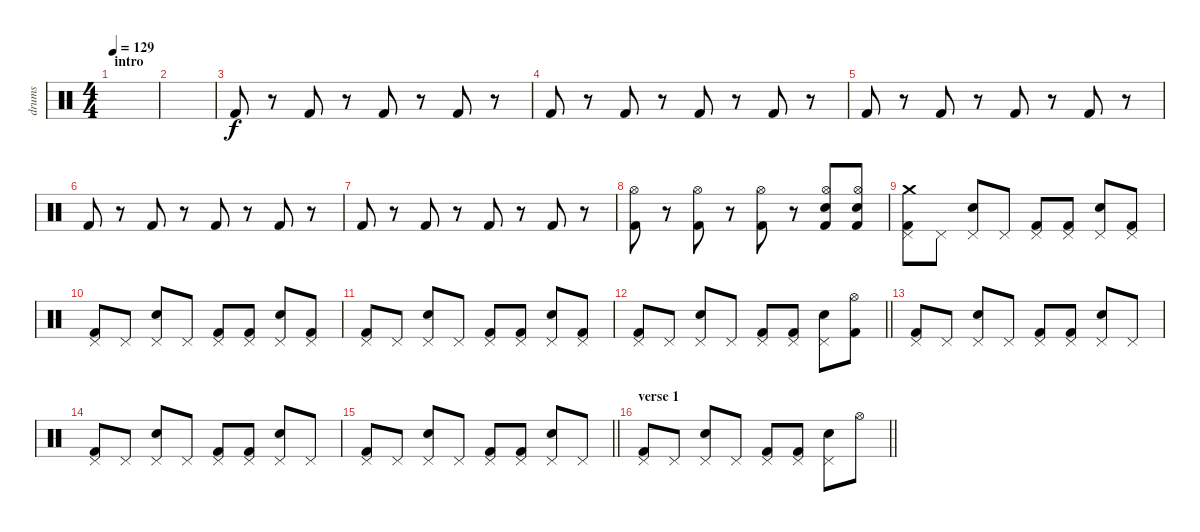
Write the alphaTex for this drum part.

\track ("drums" "drums") {instrument percussion}
\staff {score}
\articulation defaults
\ts (4 4)
\section ("" "intro")
\tempo 129
\clef neutral
\ks c
|
|
"Kick (hit) 2".8 r.8 "Kick (hit) 2".8 r.8 "Kick (hit) 2".8 r.8 "Kick (hit) 2".8 r.8 |
"Kick (hit) 2".8 r.8 "Kick (hit) 2".8 r.8 "Kick (hit) 2".8 r.8 "Kick (hit) 2".8 r.8 |
"Kick (hit) 2".8 r.8 "Kick (hit) 2".8 r.8 "Kick (hit) 2".8 r.8 "Kick (hit) 2".8 r.8 |
"Kick (hit) 2".8 r.8 "Kick (hit) 2".8 r.8 "Kick (hit) 2".8 r.8 "Kick (hit) 2".8 r.8 |
"Kick (hit) 2".8 r.8 "Kick (hit) 2".8 r.8 "Kick (hit) 2".8 r.8 "Kick (hit) 2".8 r.8 |
("Kick (hit) 2" "Hi-Hat (open)").8 r.8 ("Kick (hit) 2" "Hi-Hat (open)").8 r.8 ("Kick (hit) 2" "Hi-Hat (open)").8 r.8 ("Kick (hit) 2" "Electric Snare (hit)" "Hi-Hat (open)").8 ("Kick (hit) 2" "Electric Snare (hit)" "Hi-Hat (open)").8 |
("Kick (hit) 2" "Pedal Hi-Hat (hit)" "Crash medium (hit)").8 "Pedal Hi-Hat (hit)".8 ("Electric Snare (hit)" "Pedal Hi-Hat (hit)").8 "Pedal Hi-Hat (hit)".8 ("Kick (hit) 2" "Pedal Hi-Hat (hit)").8 ("Kick (hit) 2" "Pedal Hi-Hat (hit)").8 ("Electric Snare (hit)" "Pedal Hi-Hat (hit)").8 ("Kick (hit) 2" "Pedal Hi-Hat (hit)").8 |
("Kick (hit) 2" "Pedal Hi-Hat (hit)").8 "Pedal Hi-Hat (hit)".8 ("Electric Snare (hit)" "Pedal Hi-Hat (hit)").8 "Pedal Hi-Hat (hit)".8 ("Kick (hit) 2" "Pedal Hi-Hat (hit)").8 ("Kick (hit) 2" "Pedal Hi-Hat (hit)").8 ("Electric Snare (hit)" "Pedal Hi-Hat (hit)").8 ("Kick (hit) 2" "Pedal Hi-Hat (hit)").8 |
("Kick (hit) 2" "Pedal Hi-Hat (hit)").8 "Pedal Hi-Hat (hit)".8 ("Electric Snare (hit)" "Pedal Hi-Hat (hit)").8 "Pedal Hi-Hat (hit)".8 ("Kick (hit) 2" "Pedal Hi-Hat (hit)").8 ("Kick (hit) 2" "Pedal Hi-Hat (hit)").8 ("Electric Snare (hit)" "Pedal Hi-Hat (hit)").8 ("Kick (hit) 2" "Pedal Hi-Hat (hit)").8 |
\barLineRight lightlight
("Kick (hit) 2" "Pedal Hi-Hat (hit)").8 "Pedal Hi-Hat (hit)".8 ("Electric Snare (hit)" "Pedal Hi-Hat (hit)").8 "Pedal Hi-Hat (hit)".8 ("Kick (hit) 2" "Pedal Hi-Hat (hit)").8 ("Kick (hit) 2" "Pedal Hi-Hat (hit)").8 ("Electric Snare (hit)" "Pedal Hi-Hat (hit)").8 ("Kick (hit) 2" "Hi-Hat (open)").8 |
("Kick (hit) 2" "Pedal Hi-Hat (hit)").8 "Pedal Hi-Hat (hit)".8 ("Electric Snare (hit)" "Pedal Hi-Hat (hit)").8 "Pedal Hi-Hat (hit)".8 ("Kick (hit) 2" "Pedal Hi-Hat (hit)").8 ("Kick (hit) 2" "Pedal Hi-Hat (hit)").8 ("Electric Snare (hit)" "Pedal Hi-Hat (hit)").8 "Pedal Hi-Hat (hit)".8 |
("Kick (hit) 2" "Pedal Hi-Hat (hit)").8 "Pedal Hi-Hat (hit)".8 ("Electric Snare (hit)" "Pedal Hi-Hat (hit)").8 "Pedal Hi-Hat (hit)".8 ("Kick (hit) 2" "Pedal Hi-Hat (hit)").8 ("Kick (hit) 2" "Pedal Hi-Hat (hit)").8 ("Electric Snare (hit)" "Pedal Hi-Hat (hit)").8 "Pedal Hi-Hat (hit)".8 |
\barLineRight lightlight
("Kick (hit) 2" "Pedal Hi-Hat (hit)").8 "Pedal Hi-Hat (hit)".8 ("Electric Snare (hit)" "Pedal Hi-Hat (hit)").8 "Pedal Hi-Hat (hit)".8 ("Kick (hit) 2" "Pedal Hi-Hat (hit)").8 ("Kick (hit) 2" "Pedal Hi-Hat (hit)").8 ("Electric Snare (hit)" "Pedal Hi-Hat (hit)").8 "Pedal Hi-Hat (hit)".8 |
\section ("" "verse 1")
\barLineRight lightlight
("Kick (hit) 2" "Pedal Hi-Hat (hit)").8 "Pedal Hi-Hat (hit)".8 ("Electric Snare (hit)" "Pedal Hi-Hat (hit)").8 "Pedal Hi-Hat (hit)".8 ("Kick (hit) 2" "Pedal Hi-Hat (hit)").8 ("Kick (hit) 2" "Pedal Hi-Hat (hit)").8 ("Electric Snare (hit)" "Pedal Hi-Hat (hit)").8 "Hi-Hat (open)".8
